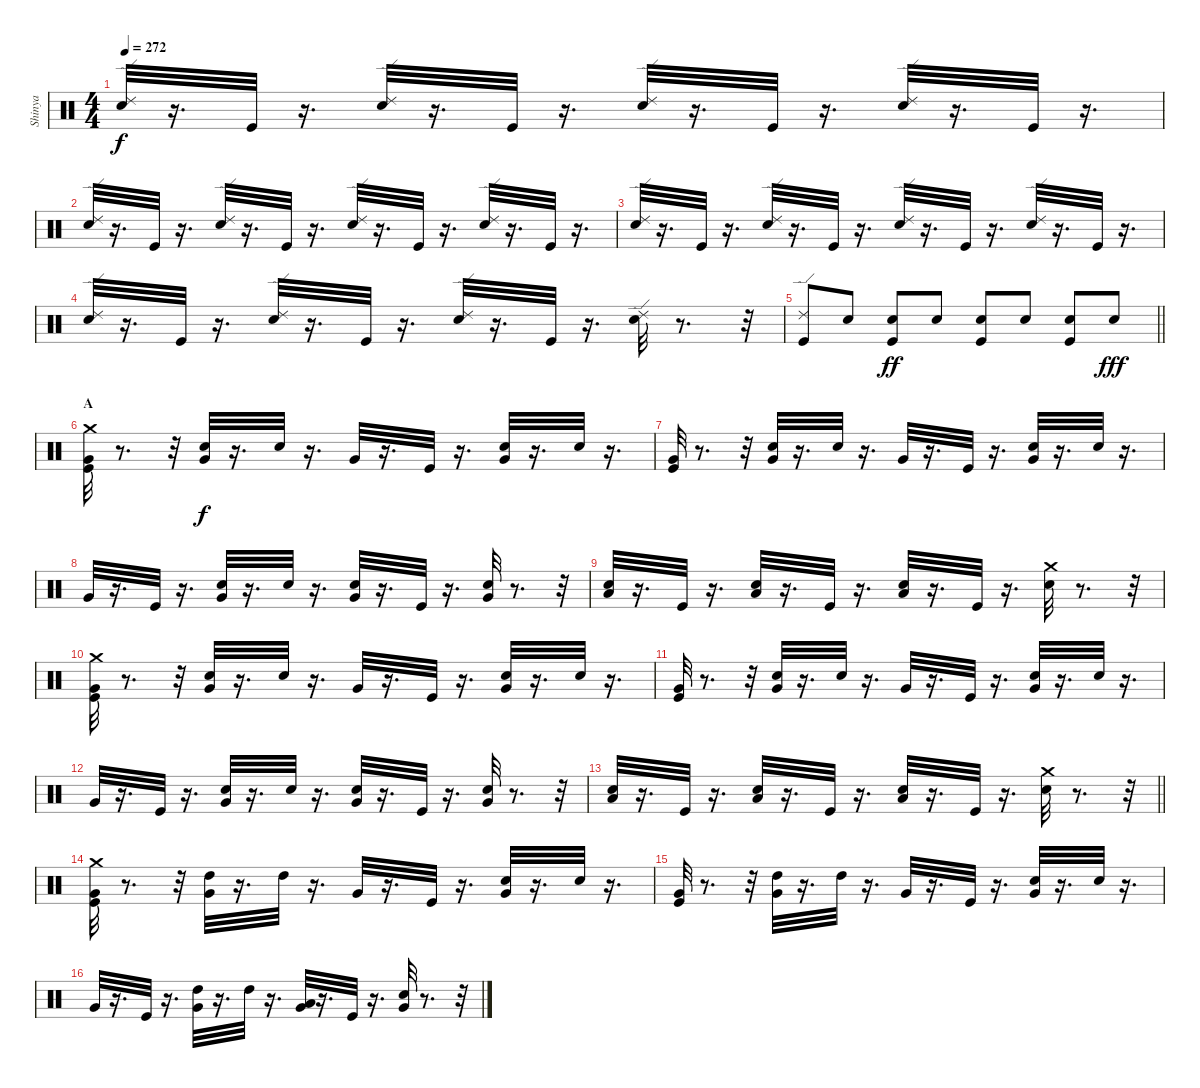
\track ("Shinya" "Shinya") {instrument percussion}
\staff {score}
\articulation defaults
\ts (4 4)
\tempo 272
\clef neutral
\ks c
("Ride (edge) 2" "Snare (hit) 2").32{dy f} r.16{d} "Kick (hit)".32 r.16{d} ("Ride (edge) 2" "Snare (hit) 2").32 r.16{d} "Kick (hit)".32 r.16{d} ("Ride (edge) 2" "Snare (hit) 2").32 r.16{d} "Kick (hit)".32 r.16{d} ("Ride (edge) 2" "Snare (hit) 2").32 r.16{d} "Kick (hit)".32 r.16{d} |
("Ride (edge) 2" "Snare (hit) 2").32 r.16{d} "Kick (hit)".32 r.16{d} ("Ride (edge) 2" "Snare (hit) 2").32 r.16{d} "Kick (hit)".32 r.16{d} ("Ride (edge) 2" "Snare (hit) 2").32 r.16{d} "Kick (hit)".32 r.16{d} ("Ride (edge) 2" "Snare (hit) 2").32 r.16{d} "Kick (hit)".32 r.16{d} |
("Ride (edge) 2" "Snare (hit) 2").32 r.16{d} "Kick (hit)".32 r.16{d} ("Ride (edge) 2" "Snare (hit) 2").32 r.16{d} "Kick (hit)".32 r.16{d} ("Ride (edge) 2" "Snare (hit) 2").32 r.16{d} "Kick (hit)".32 r.16{d} ("Ride (edge) 2" "Snare (hit) 2").32 r.16{d} "Kick (hit)".32 r.16{d} |
("Ride (edge) 2" "Snare (hit) 2").32 r.16{d} "Kick (hit)".32 r.16{d} ("Ride (edge) 2" "Snare (hit) 2").32 r.16{d} "Kick (hit)".32 r.16{d} ("Ride (edge) 2" "Snare (hit) 2").32 r.16{d} "Kick (hit)".32 r.16{d} ("Ride (edge) 2" "Snare (hit) 2").32 r.8{d} r.32 |
\barLineRight lightlight
("Ride (edge) 2" "Kick (hit)").8 "Snare (hit) 2".8 ("Kick (hit)" "Snare (hit) 2").8{dy ff} "Snare (hit) 2".8 ("Kick (hit)" "Snare (hit) 2").8 "Snare (hit) 2".8 ("Kick (hit)" "Snare (hit) 2").8 "Snare (hit) 2".8{dy fff} |
\section ("" "A")
("Very Low Tom (hit)" "Kick (hit)" "Crash medium (hit)").32 r.8{d} r.32 ("Snare (hit) 2" "Very Low Tom (hit)").32{dy f} r.16{d} "Snare (hit) 2".32 r.16{d} "Very Low Tom (hit)".32 r.16{d} "Kick (hit)".32 r.16{d} ("Very Low Tom (hit)" "Snare (hit) 2").32 r.16{d} "Snare (hit) 2".32 r.16{d} |
("Very Low Tom (hit)" "Kick (hit)").32 r.8{d} r.32 ("Snare (hit) 2" "Very Low Tom (hit)").32 r.16{d} "Snare (hit) 2".32 r.16{d} "Very Low Tom (hit)".32 r.16{d} "Kick (hit)".32 r.16{d} ("Very Low Tom (hit)" "Snare (hit) 2").32 r.16{d} "Snare (hit) 2".32 r.16{d} |
"Very Low Tom (hit)".32 r.16{d} "Kick (hit)".32 r.16{d} ("Very Low Tom (hit)" "Snare (hit) 2").32 r.16{d} "Snare (hit) 2".32 r.16{d} ("Snare (hit) 2" "Very Low Tom (hit)").32 r.16{d} "Kick (hit)".32 r.16{d} ("Very Low Tom (hit)" "Snare (hit) 2").32 r.8{d} r.32 |
("Low Tom (hit)" "Snare (hit) 2").32 r.16{d} "Kick (hit)".32 r.16{d} ("Low Tom (hit)" "Snare (hit) 2").32 r.16{d} "Kick (hit)".32 r.16{d} ("Low Tom (hit)" "Snare (hit) 2").32 r.16{d} "Kick (hit)".32 r.16{d} ("Crash medium (hit)" "Snare (hit) 2").32 r.8{d} r.32 |
("Very Low Tom (hit)" "Kick (hit)" "Crash medium (hit)").32 r.8{d} r.32 ("Snare (hit) 2" "Very Low Tom (hit)").32 r.16{d} "Snare (hit) 2".32 r.16{d} "Very Low Tom (hit)".32 r.16{d} "Kick (hit)".32 r.16{d} ("Very Low Tom (hit)" "Snare (hit) 2").32 r.16{d} "Snare (hit) 2".32 r.16{d} |
("Very Low Tom (hit)" "Kick (hit)").32 r.8{d} r.32 ("Snare (hit) 2" "Very Low Tom (hit)").32 r.16{d} "Snare (hit) 2".32 r.16{d} "Very Low Tom (hit)".32 r.16{d} "Kick (hit)".32 r.16{d} ("Very Low Tom (hit)" "Snare (hit) 2").32 r.16{d} "Snare (hit) 2".32 r.16{d} |
"Very Low Tom (hit)".32 r.16{d} "Kick (hit)".32 r.16{d} ("Very Low Tom (hit)" "Snare (hit) 2").32 r.16{d} "Snare (hit) 2".32 r.16{d} ("Snare (hit) 2" "Very Low Tom (hit)").32 r.16{d} "Kick (hit)".32 r.16{d} ("Very Low Tom (hit)" "Snare (hit) 2").32 r.8{d} r.32 |
\barLineRight lightlight
("Low Tom (hit)" "Snare (hit) 2").32 r.16{d} "Kick (hit)".32 r.16{d} ("Low Tom (hit)" "Snare (hit) 2").32 r.16{d} "Kick (hit)".32 r.16{d} ("Low Tom (hit)" "Snare (hit) 2").32 r.16{d} "Kick (hit)".32 r.16{d} ("Crash medium (hit)" "Snare (hit) 2").32 r.8{d} r.32 |
("Very Low Tom (hit)" "Kick (hit)" "Crash medium (hit)").32 r.8{d} r.32 ("High Tom (hit)" "Very Low Tom (hit)").32 r.16{d} "High Tom (hit)".32 r.16{d} "Very Low Tom (hit)".32 r.16{d} "Kick (hit)".32 r.16{d} ("Very Low Tom (hit)" "Snare (hit) 2").32 r.16{d} "Snare (hit) 2".32 r.16{d} |
("Very Low Tom (hit)" "Kick (hit)").32 r.8{d} r.32 ("High Tom (hit)" "Very Low Tom (hit)").32 r.16{d} "High Tom (hit)".32 r.16{d} "Very Low Tom (hit)".32 r.16{d} "Kick (hit)".32 r.16{d} ("Very Low Tom (hit)" "Snare (hit) 2").32 r.16{d} "Snare (hit) 2".32 r.16{d} |
"Very Low Tom (hit)".32 r.16{d} "Kick (hit)".32 r.16{d} ("Very Low Tom (hit)" "High Tom (hit)").32 r.16{d} "High Tom (hit)".32 r.16{d} ("Very Low Tom (hit)" "Low Tom (hit)").32 r.16{d} "Kick (hit)".32 r.16{d} ("Very Low Tom (hit)" "Snare (hit) 2").32 r.8{d} r.32
